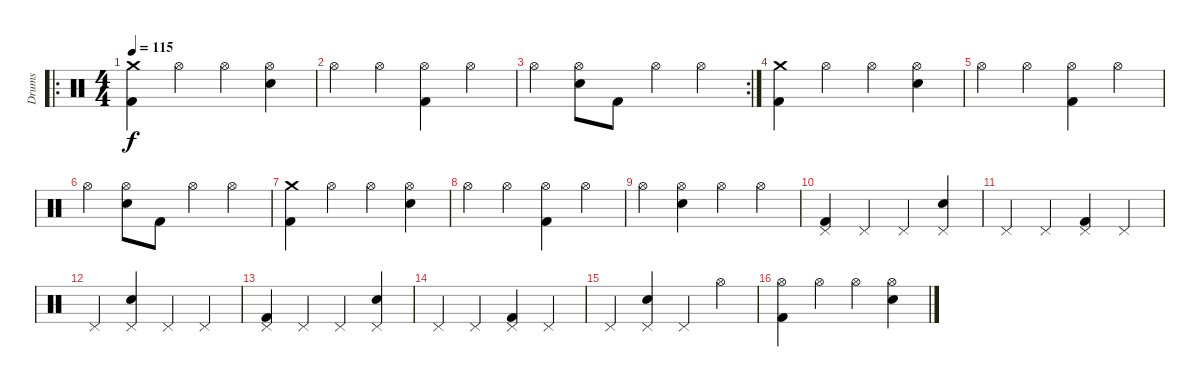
\track ("Drums" "Drums") {instrument percussion}
\staff {score}
\articulation defaults
\ro
\ts (4 4)
\tempo 115
\clef neutral
\ks c
("Crash medium (hit)" "Kick (hit) 2").4{dy f} "Hi-Hat (open)".4 "Hi-Hat (open)".4 ("Hi-Hat (open)" "Electric Snare (hit)").4 |
"Hi-Hat (open)".4 "Hi-Hat (open)".4 ("Hi-Hat (open)" "Kick (hit) 2").4 "Hi-Hat (open)".4 |
\rc 2 "Hi-Hat (open)".4
("Hi-Hat (open)" "Electric Snare (hit)").8 "Kick (hit) 2".8 "Hi-Hat (open)".4 "Hi-Hat (open)".4 |
("Crash medium (hit)" "Kick (hit) 2").4 "Hi-Hat (open)".4 "Hi-Hat (open)".4 ("Hi-Hat (open)" "Electric Snare (hit)").4 |
"Hi-Hat (open)".4 "Hi-Hat (open)".4 ("Hi-Hat (open)" "Kick (hit) 2").4 "Hi-Hat (open)".4 |
"Hi-Hat (open)".4 ("Hi-Hat (open)" "Electric Snare (hit)").8 "Kick (hit) 2".8 "Hi-Hat (open)".4 "Hi-Hat (open)".4 |
("Crash medium (hit)" "Kick (hit) 2").4 "Hi-Hat (open)".4 "Hi-Hat (open)".4 ("Hi-Hat (open)" "Electric Snare (hit)").4 |
"Hi-Hat (open)".4 "Hi-Hat (open)".4 ("Hi-Hat (open)" "Kick (hit) 2").4 "Hi-Hat (open)".4 |
"Hi-Hat (open)".4 ("Hi-Hat (open)" "Electric Snare (hit)").4 "Hi-Hat (open)".4 "Hi-Hat (open)".4 |
("Pedal Hi-Hat (hit)" "Kick (hit) 2").4 "Pedal Hi-Hat (hit)".4 "Pedal Hi-Hat (hit)".4 ("Pedal Hi-Hat (hit)" "Electric Snare (hit)").4 |
"Pedal Hi-Hat (hit)".4 "Pedal Hi-Hat (hit)".4 ("Pedal Hi-Hat (hit)" "Kick (hit) 2").4 "Pedal Hi-Hat (hit)".4 |
"Pedal Hi-Hat (hit)".4 ("Pedal Hi-Hat (hit)" "Electric Snare (hit)").4 "Pedal Hi-Hat (hit)".4 "Pedal Hi-Hat (hit)".4 |
("Pedal Hi-Hat (hit)" "Kick (hit) 2").4 "Pedal Hi-Hat (hit)".4 "Pedal Hi-Hat (hit)".4 ("Pedal Hi-Hat (hit)" "Electric Snare (hit)").4 |
"Pedal Hi-Hat (hit)".4 "Pedal Hi-Hat (hit)".4 ("Pedal Hi-Hat (hit)" "Kick (hit) 2").4 "Pedal Hi-Hat (hit)".4 |
"Pedal Hi-Hat (hit)".4 ("Pedal Hi-Hat (hit)" "Electric Snare (hit)").4 "Pedal Hi-Hat (hit)".4 "Hi-Hat (open)".4 |
("Hi-Hat (open)" "Kick (hit) 2").4 "Hi-Hat (open)".4 "Hi-Hat (open)".4 ("Hi-Hat (open)" "Electric Snare (hit)").4
